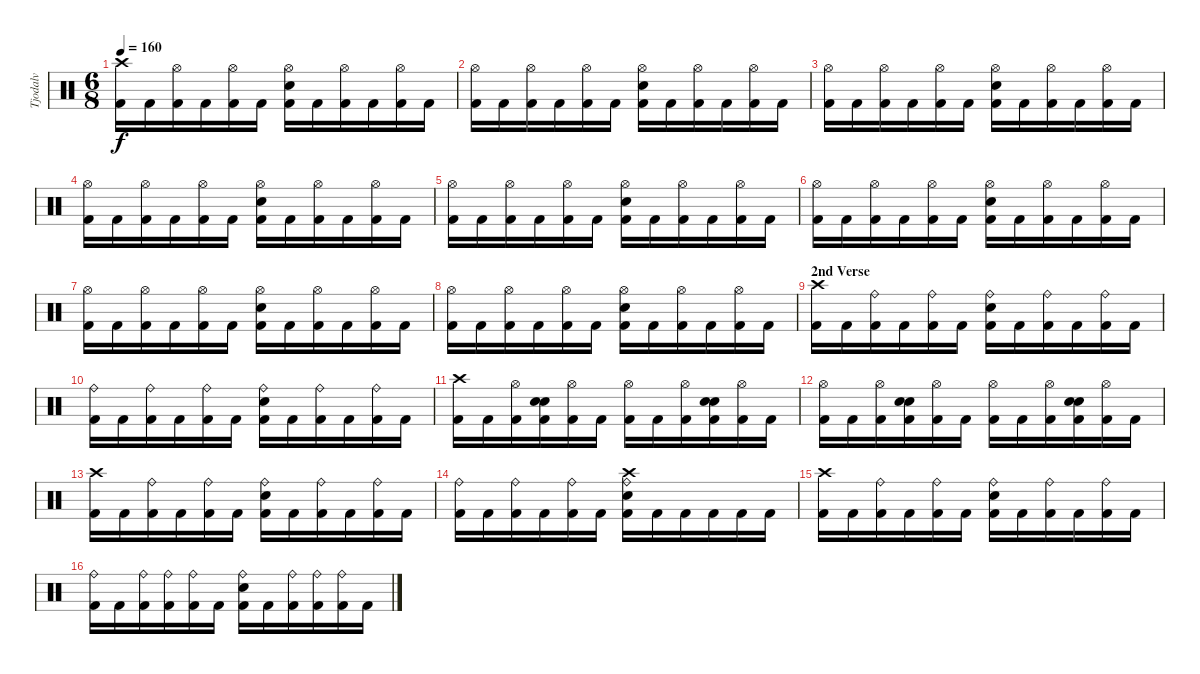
\track ("Tjodalv" "Tjodalv") {instrument percussion}
\staff {score}
\articulation defaults
\ts (6 8)
\tempo 160
\clef neutral
\ks c
("Crash high (hit)" "Kick (hit) 2").16{dy f} "Kick (hit) 2".16 ("Hi-Hat (open)" "Kick (hit) 2").16 "Kick (hit) 2".16 ("Hi-Hat (open)" "Kick (hit) 2").16 "Kick (hit) 2".16 ("Hi-Hat (open)" "Snare (hit) 2" "Kick (hit) 2").16 "Kick (hit) 2".16 ("Hi-Hat (open)" "Kick (hit) 2").16 "Kick (hit) 2".16 ("Hi-Hat (open)" "Kick (hit) 2").16 "Kick (hit) 2".16 |
("Hi-Hat (open)" "Kick (hit) 2").16 "Kick (hit) 2".16 ("Hi-Hat (open)" "Kick (hit) 2").16 "Kick (hit) 2".16 ("Hi-Hat (open)" "Kick (hit) 2").16 "Kick (hit) 2".16 ("Hi-Hat (open)" "Snare (hit) 2" "Kick (hit) 2").16 "Kick (hit) 2".16 ("Hi-Hat (open)" "Kick (hit) 2").16 "Kick (hit) 2".16 ("Hi-Hat (open)" "Kick (hit) 2").16 "Kick (hit) 2".16 |
("Hi-Hat (open)" "Kick (hit) 2").16 "Kick (hit) 2".16 ("Hi-Hat (open)" "Kick (hit) 2").16 "Kick (hit) 2".16 ("Hi-Hat (open)" "Kick (hit) 2").16 "Kick (hit) 2".16 ("Hi-Hat (open)" "Snare (hit) 2" "Kick (hit) 2").16 "Kick (hit) 2".16 ("Hi-Hat (open)" "Kick (hit) 2").16 "Kick (hit) 2".16 ("Hi-Hat (open)" "Kick (hit) 2").16 "Kick (hit) 2".16 |
("Hi-Hat (open)" "Kick (hit) 2").16 "Kick (hit) 2".16 ("Hi-Hat (open)" "Kick (hit) 2").16 "Kick (hit) 2".16 ("Hi-Hat (open)" "Kick (hit) 2").16 "Kick (hit) 2".16 ("Hi-Hat (open)" "Snare (hit) 2" "Kick (hit) 2").16 "Kick (hit) 2".16 ("Hi-Hat (open)" "Kick (hit) 2").16 "Kick (hit) 2".16 ("Hi-Hat (open)" "Kick (hit) 2").16 "Kick (hit) 2".16 |
("Hi-Hat (open)" "Kick (hit) 2").16 "Kick (hit) 2".16 ("Hi-Hat (open)" "Kick (hit) 2").16 "Kick (hit) 2".16 ("Hi-Hat (open)" "Kick (hit) 2").16 "Kick (hit) 2".16 ("Hi-Hat (open)" "Snare (hit) 2" "Kick (hit) 2").16 "Kick (hit) 2".16 ("Hi-Hat (open)" "Kick (hit) 2").16 "Kick (hit) 2".16 ("Hi-Hat (open)" "Kick (hit) 2").16 "Kick (hit) 2".16 |
("Hi-Hat (open)" "Kick (hit) 2").16 "Kick (hit) 2".16 ("Hi-Hat (open)" "Kick (hit) 2").16 "Kick (hit) 2".16 ("Hi-Hat (open)" "Kick (hit) 2").16 "Kick (hit) 2".16 ("Hi-Hat (open)" "Snare (hit) 2" "Kick (hit) 2").16 "Kick (hit) 2".16 ("Hi-Hat (open)" "Kick (hit) 2").16 "Kick (hit) 2".16 ("Hi-Hat (open)" "Kick (hit) 2").16 "Kick (hit) 2".16 |
("Hi-Hat (open)" "Kick (hit) 2").16 "Kick (hit) 2".16 ("Hi-Hat (open)" "Kick (hit) 2").16 "Kick (hit) 2".16 ("Hi-Hat (open)" "Kick (hit) 2").16 "Kick (hit) 2".16 ("Hi-Hat (open)" "Snare (hit) 2" "Kick (hit) 2").16 "Kick (hit) 2".16 ("Hi-Hat (open)" "Kick (hit) 2").16 "Kick (hit) 2".16 ("Hi-Hat (open)" "Kick (hit) 2").16 "Kick (hit) 2".16 |
("Hi-Hat (open)" "Kick (hit) 2").16 "Kick (hit) 2".16 ("Hi-Hat (open)" "Kick (hit) 2").16 "Kick (hit) 2".16 ("Hi-Hat (open)" "Kick (hit) 2").16 "Kick (hit) 2".16 ("Hi-Hat (open)" "Snare (hit) 2" "Kick (hit) 2").16 "Kick (hit) 2".16 ("Hi-Hat (open)" "Kick (hit) 2").16 "Kick (hit) 2".16 ("Hi-Hat (open)" "Kick (hit) 2").16 "Kick (hit) 2".16 |
\section ("" "2nd Verse")
("Crash high (hit)" "Kick (hit) 2").16 "Kick (hit) 2".16 ("Ride (bell)" "Kick (hit) 2").16 "Kick (hit) 2".16 ("Ride (bell)" "Kick (hit) 2").16 "Kick (hit) 2".16 ("Ride (bell)" "Snare (hit) 2" "Kick (hit) 2").16 "Kick (hit) 2".16 ("Ride (bell)" "Kick (hit) 2").16 "Kick (hit) 2".16 ("Ride (bell)" "Kick (hit) 2").16 "Kick (hit) 2".16 |
("Ride (bell)" "Kick (hit) 2").16 "Kick (hit) 2".16 ("Ride (bell)" "Kick (hit) 2").16 "Kick (hit) 2".16 ("Ride (bell)" "Kick (hit) 2").16 "Kick (hit) 2".16 ("Ride (bell)" "Snare (hit) 2" "Kick (hit) 2").16 "Kick (hit) 2".16 ("Ride (bell)" "Kick (hit) 2").16 "Kick (hit) 2".16 ("Ride (bell)" "Kick (hit) 2").16 "Kick (hit) 2".16 |
("Crash high (hit)" "Kick (hit) 2").16 "Kick (hit) 2".16 ("Hi-Hat (open)" "Kick (hit) 2").16 ("Snare (hit) 2" "Snare (hit) 2" "Kick (hit) 2").16 ("Hi-Hat (open)" "Kick (hit) 2").16 "Kick (hit) 2".16 ("Hi-Hat (open)" "Kick (hit) 2").16 "Kick (hit) 2".16 ("Hi-Hat (open)" "Kick (hit) 2").16 ("Snare (hit) 2" "Snare (hit) 2" "Kick (hit) 2").16 ("Hi-Hat (open)" "Kick (hit) 2").16 "Kick (hit) 2".16 |
("Hi-Hat (open)" "Kick (hit) 2").16 "Kick (hit) 2".16 ("Hi-Hat (open)" "Kick (hit) 2").16 ("Snare (hit) 2" "Snare (hit) 2" "Kick (hit) 2").16 ("Hi-Hat (open)" "Kick (hit) 2").16 "Kick (hit) 2".16 ("Hi-Hat (open)" "Kick (hit) 2").16 "Kick (hit) 2".16 ("Hi-Hat (open)" "Kick (hit) 2").16 ("Snare (hit) 2" "Snare (hit) 2" "Kick (hit) 2").16 ("Hi-Hat (open)" "Kick (hit) 2").16 "Kick (hit) 2".16 |
("Crash high (hit)" "Kick (hit) 2").16 "Kick (hit) 2".16 ("Ride (bell)" "Kick (hit) 2").16 "Kick (hit) 2".16 ("Ride (bell)" "Kick (hit) 2").16 "Kick (hit) 2".16 ("Ride (bell)" "Snare (hit) 2" "Kick (hit) 2").16 "Kick (hit) 2".16 ("Ride (bell)" "Kick (hit) 2").16 "Kick (hit) 2".16 ("Ride (bell)" "Kick (hit) 2").16 "Kick (hit) 2".16 |
("Ride (bell)" "Kick (hit) 2").16 "Kick (hit) 2".16 ("Ride (bell)" "Kick (hit) 2").16 "Kick (hit) 2".16 ("Ride (bell)" "Kick (hit) 2").16 "Kick (hit) 2".16 ("Crash high (hit)" "Ride (bell)" "Snare (hit) 2" "Kick (hit) 2").16 "Kick (hit) 2".16 "Kick (hit) 2".16 "Kick (hit) 2".16 "Kick (hit) 2".16 "Kick (hit) 2".16 |
("Crash high (hit)" "Kick (hit) 2").16 "Kick (hit) 2".16 ("Ride (bell)" "Kick (hit) 2").16 "Kick (hit) 2".16 ("Ride (bell)" "Kick (hit) 2").16 "Kick (hit) 2".16 ("Ride (bell)" "Snare (hit) 2" "Kick (hit) 2").16 "Kick (hit) 2".16 ("Ride (bell)" "Kick (hit) 2").16 "Kick (hit) 2".16 ("Ride (bell)" "Kick (hit) 2").16 "Kick (hit) 2".16 |
("Ride (bell)" "Kick (hit) 2").16 "Kick (hit) 2".16 ("Ride (bell)" "Kick (hit) 2").16 ("Ride (bell)" "Kick (hit) 2").16 ("Ride (bell)" "Kick (hit) 2").16 "Kick (hit) 2".16 ("Ride (bell)" "Snare (hit) 2" "Kick (hit) 2").16 "Kick (hit) 2".16 ("Ride (bell)" "Kick (hit) 2").16 ("Ride (bell)" "Kick (hit) 2").16 ("Ride (bell)" "Kick (hit) 2").16 "Kick (hit) 2".16
